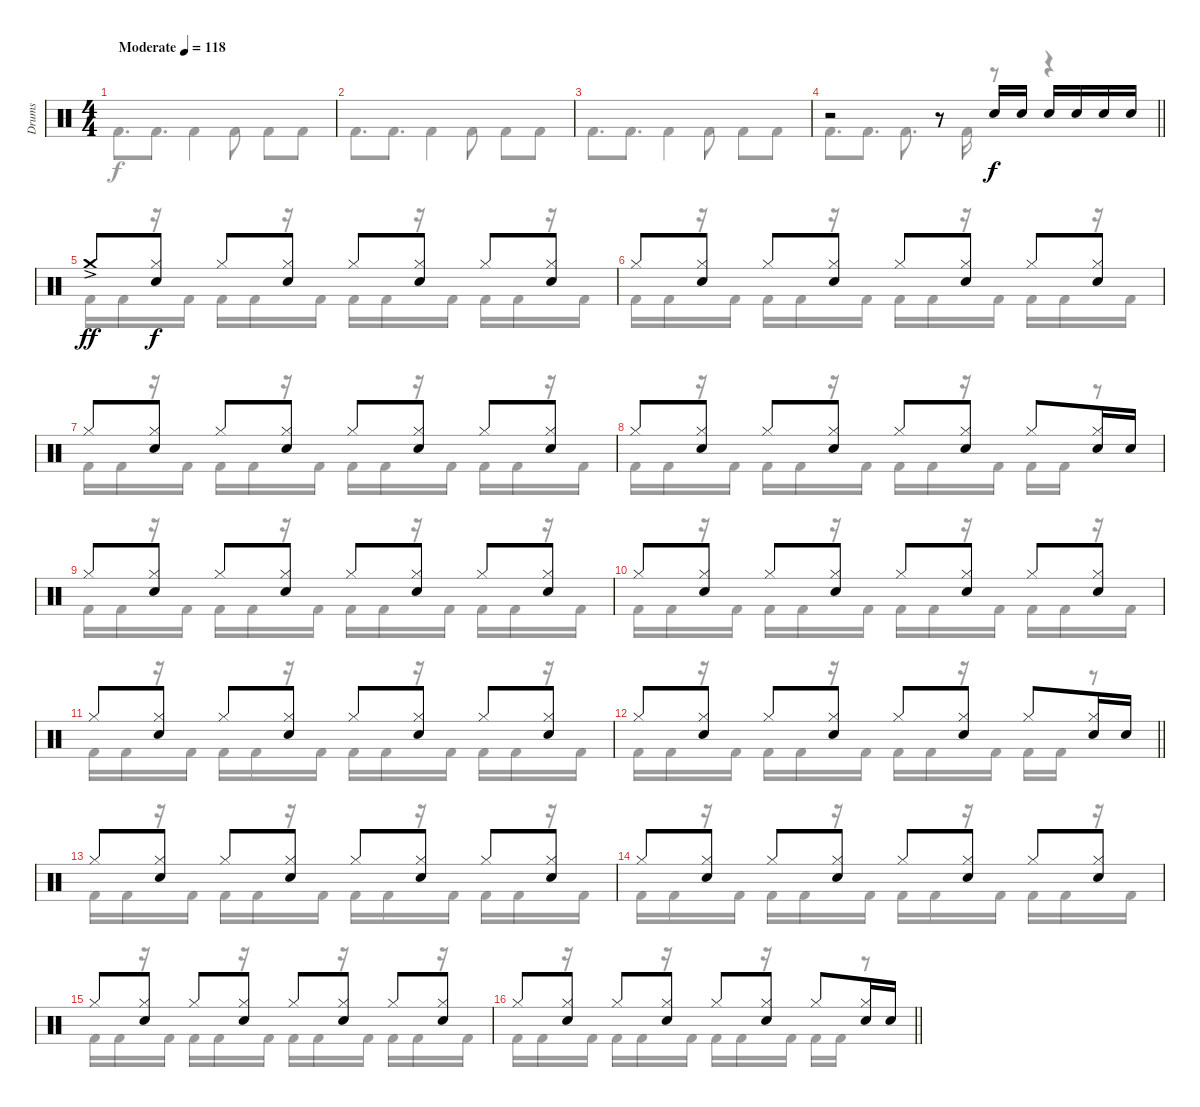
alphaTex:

\track ("Drums" "Drums") {instrument percussion}
\staff {score}
\articulation defaults
\voice
\ts (4 4)
\tempo (118 "Moderate")
\clef neutral
\ks c
|
|
|
\barLineRight lightlight
r.2 r.8 "Snare (hit) 2".16 "Snare (hit) 2".16 "Snare (hit) 2".16 "Snare (hit) 2".16 "Snare (hit) 2".16 "Snare (hit) 2".16 |
"Crash medium (hit)"{ac}.8{dy ff} ("Hi-Hat (closed)" "Snare (hit) 2").8{dy f} "Hi-Hat (closed)".8 ("Hi-Hat (closed)" "Snare (hit) 2").8 "Hi-Hat (closed)".8 ("Hi-Hat (closed)" "Snare (hit) 2").8 "Hi-Hat (closed)".8 ("Hi-Hat (closed)" "Snare (hit) 2").8 |
"Hi-Hat (closed)".8 ("Hi-Hat (closed)" "Snare (hit) 2").8 "Hi-Hat (closed)".8 ("Hi-Hat (closed)" "Snare (hit) 2").8 "Hi-Hat (closed)".8 ("Hi-Hat (closed)" "Snare (hit) 2").8 "Hi-Hat (closed)".8 ("Hi-Hat (closed)" "Snare (hit) 2").8 |
"Hi-Hat (closed)".8 ("Hi-Hat (closed)" "Snare (hit) 2").8 "Hi-Hat (closed)".8 ("Hi-Hat (closed)" "Snare (hit) 2").8 "Hi-Hat (closed)".8 ("Hi-Hat (closed)" "Snare (hit) 2").8 "Hi-Hat (closed)".8 ("Hi-Hat (closed)" "Snare (hit) 2").8 |
"Hi-Hat (closed)".8 ("Hi-Hat (closed)" "Snare (hit) 2").8 "Hi-Hat (closed)".8 ("Hi-Hat (closed)" "Snare (hit) 2").8 "Hi-Hat (closed)".8 ("Hi-Hat (closed)" "Snare (hit) 2").8 "Hi-Hat (closed)".8 ("Hi-Hat (closed)" "Snare (hit) 2").16 "Snare (hit) 2".16 |
"Hi-Hat (closed)".8 ("Hi-Hat (closed)" "Snare (hit) 2").8 "Hi-Hat (closed)".8 ("Hi-Hat (closed)" "Snare (hit) 2").8 "Hi-Hat (closed)".8 ("Hi-Hat (closed)" "Snare (hit) 2").8 "Hi-Hat (closed)".8 ("Hi-Hat (closed)" "Snare (hit) 2").8 |
"Hi-Hat (closed)".8 ("Hi-Hat (closed)" "Snare (hit) 2").8 "Hi-Hat (closed)".8 ("Hi-Hat (closed)" "Snare (hit) 2").8 "Hi-Hat (closed)".8 ("Hi-Hat (closed)" "Snare (hit) 2").8 "Hi-Hat (closed)".8 ("Hi-Hat (closed)" "Snare (hit) 2").8 |
"Hi-Hat (closed)".8 ("Hi-Hat (closed)" "Snare (hit) 2").8 "Hi-Hat (closed)".8 ("Hi-Hat (closed)" "Snare (hit) 2").8 "Hi-Hat (closed)".8 ("Hi-Hat (closed)" "Snare (hit) 2").8 "Hi-Hat (closed)".8 ("Hi-Hat (closed)" "Snare (hit) 2").8 |
\barLineRight lightlight "Hi-Hat (closed)".8
("Hi-Hat (closed)" "Snare (hit) 2").8 "Hi-Hat (closed)".8 ("Hi-Hat (closed)" "Snare (hit) 2").8 "Hi-Hat (closed)".8 ("Hi-Hat (closed)" "Snare (hit) 2").8 "Hi-Hat (closed)".8 ("Hi-Hat (closed)" "Snare (hit) 2").16 "Snare (hit) 2".16 |
"Hi-Hat (closed)".8 ("Hi-Hat (closed)" "Snare (hit) 2").8 "Hi-Hat (closed)".8 ("Hi-Hat (closed)" "Snare (hit) 2").8 "Hi-Hat (closed)".8 ("Hi-Hat (closed)" "Snare (hit) 2").8 "Hi-Hat (closed)".8 ("Hi-Hat (closed)" "Snare (hit) 2").8 |
"Hi-Hat (closed)".8 ("Hi-Hat (closed)" "Snare (hit) 2").8 "Hi-Hat (closed)".8 ("Hi-Hat (closed)" "Snare (hit) 2").8 "Hi-Hat (closed)".8 ("Hi-Hat (closed)" "Snare (hit) 2").8 "Hi-Hat (closed)".8 ("Hi-Hat (closed)" "Snare (hit) 2").8 |
"Hi-Hat (closed)".8 ("Hi-Hat (closed)" "Snare (hit) 2").8 "Hi-Hat (closed)".8 ("Hi-Hat (closed)" "Snare (hit) 2").8 "Hi-Hat (closed)".8 ("Hi-Hat (closed)" "Snare (hit) 2").8 "Hi-Hat (closed)".8 ("Hi-Hat (closed)" "Snare (hit) 2").8 |
\barLineRight lightlight "Hi-Hat (closed)".8
("Hi-Hat (closed)" "Snare (hit) 2").8 "Hi-Hat (closed)".8 ("Hi-Hat (closed)" "Snare (hit) 2").8 "Hi-Hat (closed)".8 ("Hi-Hat (closed)" "Snare (hit) 2").8 "Hi-Hat (closed)".8 ("Hi-Hat (closed)" "Snare (hit) 2").16 "Snare (hit) 2".16
\voice
\clef neutral
\ottava regular
\simile none
\ks c "Kick (hit) 2".8{d dy f} "Kick (hit) 2".8{d} "Kick (hit) 2".4 "Kick (hit) 2".8 "Kick (hit) 2".8 "Kick (hit) 2".8
|
"Kick (hit) 2".8{d} "Kick (hit) 2".8{d} "Kick (hit) 2".4 "Kick (hit) 2".8 "Kick (hit) 2".8 "Kick (hit) 2".8 |
"Kick (hit) 2".8{d} "Kick (hit) 2".8{d} "Kick (hit) 2".4 "Kick (hit) 2".8 "Kick (hit) 2".8 "Kick (hit) 2".8 |
\barLineRight lightlight "Kick (hit) 2".8{d} "Kick (hit) 2".8{d} "Kick (hit) 2".8{d} "Kick (hit) 2".16
r.8 r.4 |
"Kick (hit) 2".16 "Kick (hit) 2".16 r.16 "Kick (hit) 2".16 "Kick (hit) 2".16 "Kick (hit) 2".16 r.16 "Kick (hit) 2".16 "Kick (hit) 2".16 "Kick (hit) 2".16 r.16 "Kick (hit) 2".16 "Kick (hit) 2".16 "Kick (hit) 2".16 r.16 "Kick (hit) 2".16 |
"Kick (hit) 2".16 "Kick (hit) 2".16 r.16 "Kick (hit) 2".16 "Kick (hit) 2".16 "Kick (hit) 2".16 r.16 "Kick (hit) 2".16 "Kick (hit) 2".16 "Kick (hit) 2".16 r.16 "Kick (hit) 2".16 "Kick (hit) 2".16 "Kick (hit) 2".16 r.16 "Kick (hit) 2".16 |
"Kick (hit) 2".16 "Kick (hit) 2".16 r.16 "Kick (hit) 2".16 "Kick (hit) 2".16 "Kick (hit) 2".16 r.16 "Kick (hit) 2".16 "Kick (hit) 2".16 "Kick (hit) 2".16 r.16 "Kick (hit) 2".16 "Kick (hit) 2".16 "Kick (hit) 2".16 r.16 "Kick (hit) 2".16 |
"Kick (hit) 2".16 "Kick (hit) 2".16 r.16 "Kick (hit) 2".16 "Kick (hit) 2".16 "Kick (hit) 2".16 r.16 "Kick (hit) 2".16 "Kick (hit) 2".16 "Kick (hit) 2".16 r.16 "Kick (hit) 2".16 "Kick (hit) 2".16 "Kick (hit) 2".16 r.8 |
"Kick (hit) 2".16 "Kick (hit) 2".16 r.16 "Kick (hit) 2".16 "Kick (hit) 2".16 "Kick (hit) 2".16 r.16 "Kick (hit) 2".16 "Kick (hit) 2".16 "Kick (hit) 2".16 r.16 "Kick (hit) 2".16 "Kick (hit) 2".16 "Kick (hit) 2".16 r.16 "Kick (hit) 2".16 |
"Kick (hit) 2".16 "Kick (hit) 2".16 r.16 "Kick (hit) 2".16 "Kick (hit) 2".16 "Kick (hit) 2".16 r.16 "Kick (hit) 2".16 "Kick (hit) 2".16 "Kick (hit) 2".16 r.16 "Kick (hit) 2".16 "Kick (hit) 2".16 "Kick (hit) 2".16 r.16 "Kick (hit) 2".16 |
"Kick (hit) 2".16 "Kick (hit) 2".16 r.16 "Kick (hit) 2".16 "Kick (hit) 2".16 "Kick (hit) 2".16 r.16 "Kick (hit) 2".16 "Kick (hit) 2".16 "Kick (hit) 2".16 r.16 "Kick (hit) 2".16 "Kick (hit) 2".16 "Kick (hit) 2".16 r.16 "Kick (hit) 2".16 |
\barLineRight lightlight "Kick (hit) 2".16 "Kick (hit) 2".16
r.16 "Kick (hit) 2".16 "Kick (hit) 2".16 "Kick (hit) 2".16 r.16 "Kick (hit) 2".16 "Kick (hit) 2".16 "Kick (hit) 2".16 r.16 "Kick (hit) 2".16 "Kick (hit) 2".16 "Kick (hit) 2".16 r.8 |
"Kick (hit) 2".16 "Kick (hit) 2".16 r.16 "Kick (hit) 2".16 "Kick (hit) 2".16 "Kick (hit) 2".16 r.16 "Kick (hit) 2".16 "Kick (hit) 2".16 "Kick (hit) 2".16 r.16 "Kick (hit) 2".16 "Kick (hit) 2".16 "Kick (hit) 2".16 r.16 "Kick (hit) 2".16 |
"Kick (hit) 2".16 "Kick (hit) 2".16 r.16 "Kick (hit) 2".16 "Kick (hit) 2".16 "Kick (hit) 2".16 r.16 "Kick (hit) 2".16 "Kick (hit) 2".16 "Kick (hit) 2".16 r.16 "Kick (hit) 2".16 "Kick (hit) 2".16 "Kick (hit) 2".16 r.16 "Kick (hit) 2".16 |
"Kick (hit) 2".16 "Kick (hit) 2".16 r.16 "Kick (hit) 2".16 "Kick (hit) 2".16 "Kick (hit) 2".16 r.16 "Kick (hit) 2".16 "Kick (hit) 2".16 "Kick (hit) 2".16 r.16 "Kick (hit) 2".16 "Kick (hit) 2".16 "Kick (hit) 2".16 r.16 "Kick (hit) 2".16 |
\barLineRight lightlight "Kick (hit) 2".16 "Kick (hit) 2".16
r.16 "Kick (hit) 2".16 "Kick (hit) 2".16 "Kick (hit) 2".16 r.16 "Kick (hit) 2".16 "Kick (hit) 2".16 "Kick (hit) 2".16 r.16 "Kick (hit) 2".16 "Kick (hit) 2".16 "Kick (hit) 2".16 r.8
